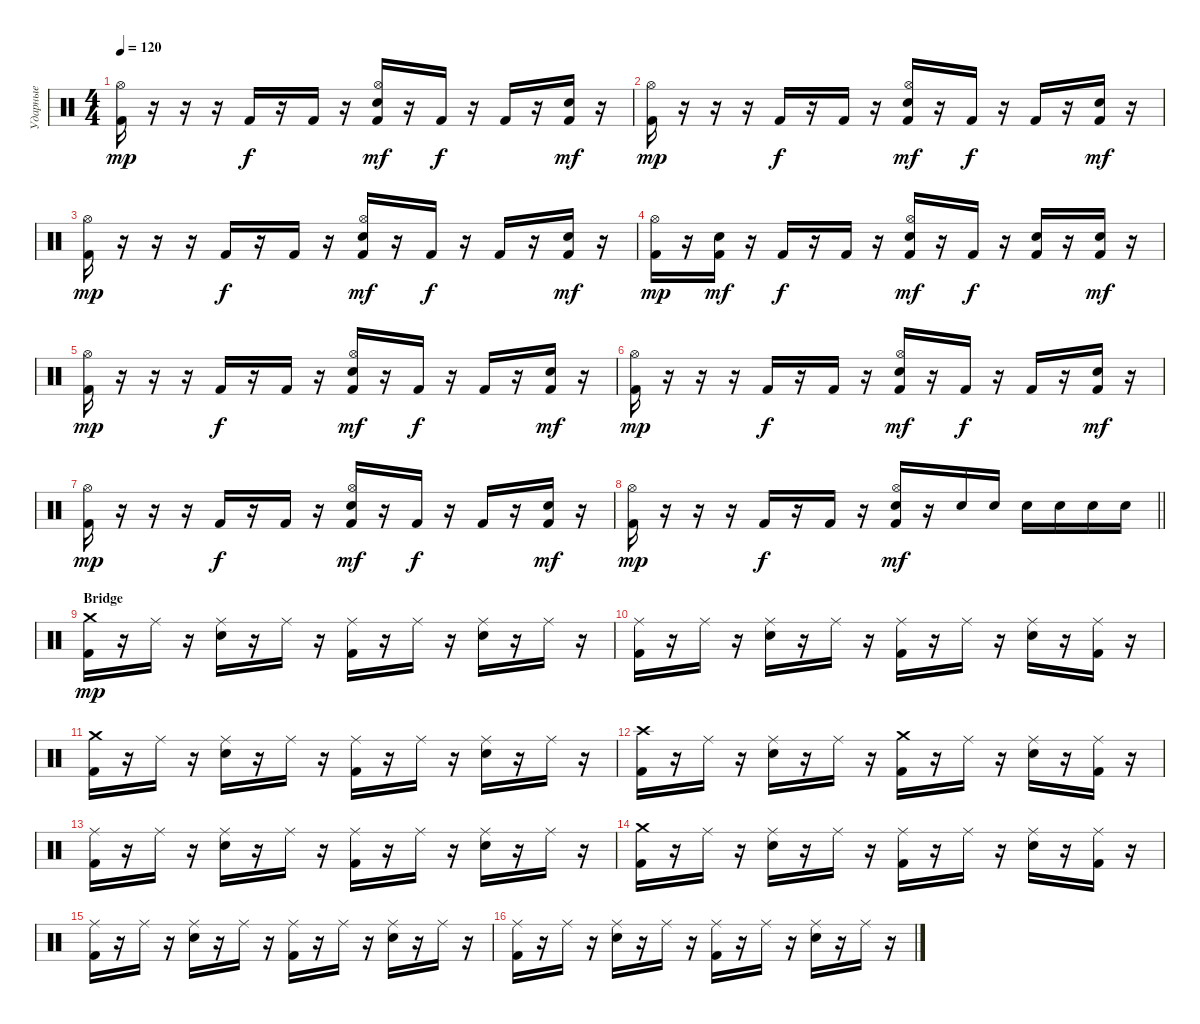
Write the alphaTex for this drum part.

\track ("Ударные" "Ударные") {instrument percussion}
\staff {score}
\articulation defaults
\ts (4 4)
\tempo 120
\clef neutral
\ks c
("Kick (hit) 2" "Hi-Hat (open)").16{dy mp} r.16 r.16 r.16 "Kick (hit) 2".16{dy f} r.16 "Kick (hit) 2".16 r.16 ("Kick (hit) 2" "Hi-Hat (open)" "Snare (hit) 2").16{dy mf} r.16 "Kick (hit) 2".16{dy f} r.16 "Kick (hit) 2".16 r.16 ("Kick (hit) 2" "Snare (hit) 2").16{dy mf} r.16 |
("Kick (hit) 2" "Hi-Hat (open)").16{dy mp} r.16 r.16 r.16 "Kick (hit) 2".16{dy f} r.16 "Kick (hit) 2".16 r.16 ("Kick (hit) 2" "Hi-Hat (open)" "Snare (hit) 2").16{dy mf} r.16 "Kick (hit) 2".16{dy f} r.16 "Kick (hit) 2".16 r.16 ("Kick (hit) 2" "Snare (hit) 2").16{dy mf} r.16 |
("Kick (hit) 2" "Hi-Hat (open)").16{dy mp} r.16 r.16 r.16 "Kick (hit) 2".16{dy f} r.16 "Kick (hit) 2".16 r.16 ("Kick (hit) 2" "Hi-Hat (open)" "Snare (hit) 2").16{dy mf} r.16 "Kick (hit) 2".16{dy f} r.16 "Kick (hit) 2".16 r.16 ("Kick (hit) 2" "Snare (hit) 2").16{dy mf} r.16 |
("Kick (hit) 2" "Hi-Hat (open)").16{dy mp} r.16 ("Kick (hit) 2" "Snare (hit) 2").16{dy mf} r.16 "Kick (hit) 2".16{dy f} r.16 "Kick (hit) 2".16 r.16 ("Kick (hit) 2" "Hi-Hat (open)" "Snare (hit) 2").16{dy mf} r.16 "Kick (hit) 2".16{dy f} r.16 ("Kick (hit) 2" "Snare (hit) 2").16 r.16 ("Kick (hit) 2" "Snare (hit) 2").16{dy mf} r.16 |
("Kick (hit) 2" "Hi-Hat (open)").16{dy mp} r.16 r.16 r.16 "Kick (hit) 2".16{dy f} r.16 "Kick (hit) 2".16 r.16 ("Kick (hit) 2" "Hi-Hat (open)" "Snare (hit) 2").16{dy mf} r.16 "Kick (hit) 2".16{dy f} r.16 "Kick (hit) 2".16 r.16 ("Kick (hit) 2" "Snare (hit) 2").16{dy mf} r.16 |
("Kick (hit) 2" "Hi-Hat (open)").16{dy mp} r.16 r.16 r.16 "Kick (hit) 2".16{dy f} r.16 "Kick (hit) 2".16 r.16 ("Kick (hit) 2" "Hi-Hat (open)" "Snare (hit) 2").16{dy mf} r.16 "Kick (hit) 2".16{dy f} r.16 "Kick (hit) 2".16 r.16 ("Kick (hit) 2" "Snare (hit) 2").16{dy mf} r.16 |
("Kick (hit) 2" "Hi-Hat (open)").16{dy mp} r.16 r.16 r.16 "Kick (hit) 2".16{dy f} r.16 "Kick (hit) 2".16 r.16 ("Kick (hit) 2" "Hi-Hat (open)" "Snare (hit) 2").16{dy mf} r.16 "Kick (hit) 2".16{dy f} r.16 "Kick (hit) 2".16 r.16 ("Kick (hit) 2" "Snare (hit) 2").16{dy mf} r.16 |
\barLineRight lightlight
("Kick (hit) 2" "Hi-Hat (open)").16{dy mp} r.16 r.16 r.16 "Kick (hit) 2".16{dy f} r.16 "Kick (hit) 2".16 r.16 ("Kick (hit) 2" "Hi-Hat (open)" "Snare (hit) 2").16{dy mf} r.16 "Snare (hit) 2".16 "Snare (hit) 2".16 "Snare (hit) 2".16 "Snare (hit) 2".16 "Snare (hit) 2".16 "Snare (hit) 2".16 |
\section ("" "Bridge")
("Kick (hit) 2" "Crash medium (hit)").16{dy mp} r.16 "Ride (middle)".16 r.16 ("Ride (middle)" "Snare (hit) 2").16 r.16 "Ride (middle)".16 r.16 ("Kick (hit) 2" "Ride (middle)").16 r.16 "Ride (middle)".16 r.16 ("Ride (middle)" "Snare (hit) 2").16 r.16 "Ride (middle)".16 r.16 |
("Kick (hit) 2" "Ride (middle)").16 r.16 "Ride (middle)".16 r.16 ("Ride (middle)" "Snare (hit) 2").16 r.16 "Ride (middle)".16 r.16 ("Kick (hit) 2" "Ride (middle)").16 r.16 "Ride (middle)".16 r.16 ("Ride (middle)" "Snare (hit) 2").16 r.16 ("Kick (hit) 2" "Ride (middle)").16 r.16 |
("Kick (hit) 2" "Crash medium (hit)").16 r.16 "Ride (middle)".16 r.16 ("Ride (middle)" "Snare (hit) 2").16 r.16 "Ride (middle)".16 r.16 ("Kick (hit) 2" "Ride (middle)").16 r.16 "Ride (middle)".16 r.16 ("Ride (middle)" "Snare (hit) 2").16 r.16 "Ride (middle)".16 r.16 |
("Kick (hit) 2" "Crash high (hit)").16 r.16 "Ride (middle)".16 r.16 ("Ride (middle)" "Snare (hit) 2").16 r.16 "Ride (middle)".16 r.16 ("Kick (hit) 2" "Crash medium (hit)").16 r.16 "Ride (middle)".16 r.16 ("Ride (middle)" "Snare (hit) 2").16 r.16 ("Kick (hit) 2" "Ride (middle)").16 r.16 |
("Kick (hit) 2" "Ride (middle)").16 r.16 "Ride (middle)".16 r.16 ("Ride (middle)" "Snare (hit) 2").16 r.16 "Ride (middle)".16 r.16 ("Kick (hit) 2" "Ride (middle)").16 r.16 "Ride (middle)".16 r.16 ("Ride (middle)" "Snare (hit) 2").16 r.16 "Ride (middle)".16 r.16 |
("Kick (hit) 2" "Crash medium (hit)").16 r.16 "Ride (middle)".16 r.16 ("Ride (middle)" "Snare (hit) 2").16 r.16 "Ride (middle)".16 r.16 ("Kick (hit) 2" "Ride (middle)").16 r.16 "Ride (middle)".16 r.16 ("Ride (middle)" "Snare (hit) 2").16 r.16 ("Kick (hit) 2" "Ride (middle)").16 r.16 |
("Kick (hit) 2" "Ride (middle)").16 r.16 "Ride (middle)".16 r.16 ("Ride (middle)" "Snare (hit) 2").16 r.16 "Ride (middle)".16 r.16 ("Kick (hit) 2" "Ride (middle)").16 r.16 "Ride (middle)".16 r.16 ("Ride (middle)" "Snare (hit) 2").16 r.16 "Ride (middle)".16 r.16 |
("Kick (hit) 2" "Ride (middle)").16 r.16 "Ride (middle)".16 r.16 ("Ride (middle)" "Snare (hit) 2").16 r.16 "Ride (middle)".16 r.16 ("Kick (hit) 2" "Ride (middle)").16 r.16 "Ride (middle)".16 r.16 ("Ride (middle)" "Snare (hit) 2").16 r.16 "Ride (middle)".16 r.16
